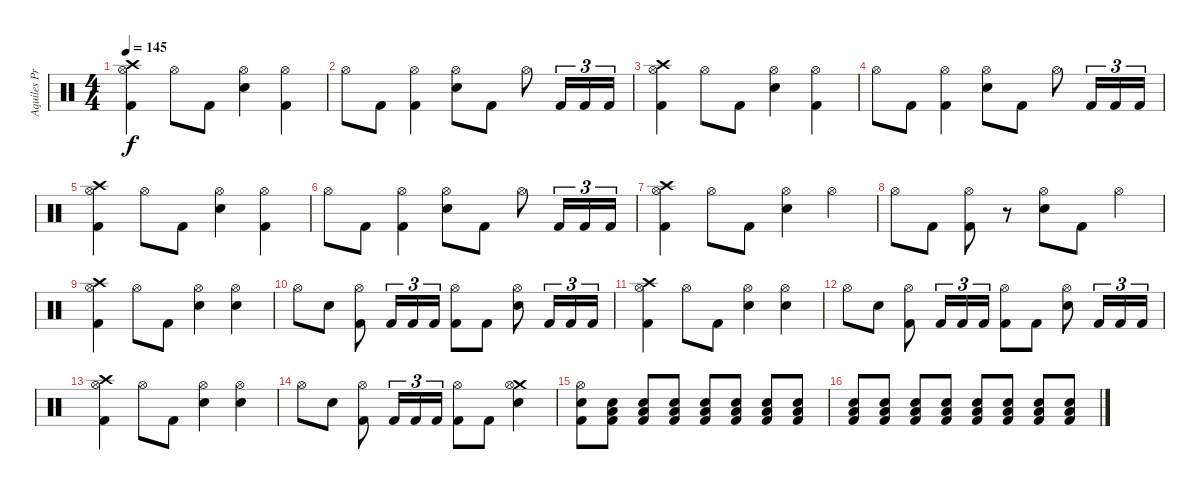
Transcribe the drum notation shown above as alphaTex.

\track ("Aquiles Priester" "Aquiles Pr") {instrument percussion}
\staff {score}
\articulation defaults
\ts (4 4)
\tempo 145
\clef neutral
\ks c
("Crash high (hit)" "Hi-Hat (open)" "Kick (hit) 2").4{dy f} "Hi-Hat (open)".8 "Kick (hit) 2".8 ("Hi-Hat (open)" "Electric Snare (hit)").4 ("Hi-Hat (open)" "Kick (hit) 2").4 |
"Hi-Hat (open)".8 "Kick (hit) 2".8 ("Hi-Hat (open)" "Kick (hit) 2").4 ("Hi-Hat (open)" "Electric Snare (hit)").8 "Kick (hit) 2".8 "Hi-Hat (open)".8 "Kick (hit) 2".16{tu (3 2)} "Kick (hit) 2".16{tu (3 2)} "Kick (hit) 2".16{tu (3 2)} |
("Crash high (hit)" "Hi-Hat (open)" "Kick (hit) 2").4 "Hi-Hat (open)".8 "Kick (hit) 2".8 ("Hi-Hat (open)" "Electric Snare (hit)").4 ("Hi-Hat (open)" "Kick (hit) 2").4 |
"Hi-Hat (open)".8 "Kick (hit) 2".8 ("Hi-Hat (open)" "Kick (hit) 2").4 ("Hi-Hat (open)" "Electric Snare (hit)").8 "Kick (hit) 2".8 "Hi-Hat (open)".8 "Kick (hit) 2".16{tu (3 2)} "Kick (hit) 2".16{tu (3 2)} "Kick (hit) 2".16{tu (3 2)} |
("Crash high (hit)" "Hi-Hat (open)" "Kick (hit) 2").4 "Hi-Hat (open)".8 "Kick (hit) 2".8 ("Hi-Hat (open)" "Electric Snare (hit)").4 ("Hi-Hat (open)" "Kick (hit) 2").4 |
"Hi-Hat (open)".8 "Kick (hit) 2".8 ("Hi-Hat (open)" "Kick (hit) 2").4 ("Hi-Hat (open)" "Electric Snare (hit)").8 "Kick (hit) 2".8 "Hi-Hat (open)".8 "Kick (hit) 2".16{tu (3 2)} "Kick (hit) 2".16{tu (3 2)} "Kick (hit) 2".16{tu (3 2)} |
("Crash high (hit)" "Hi-Hat (open)" "Kick (hit) 2").4 "Hi-Hat (open)".8 "Kick (hit) 2".8 ("Hi-Hat (open)" "Electric Snare (hit)").4 "Hi-Hat (open)".4 |
"Hi-Hat (open)".8 "Kick (hit) 2".8 ("Hi-Hat (open)" "Kick (hit) 2").8 r.8 ("Hi-Hat (open)" "Electric Snare (hit)").8 "Kick (hit) 2".8 "Hi-Hat (open)".4 |
("Crash high (hit)" "Hi-Hat (open)" "Kick (hit) 2").4 "Hi-Hat (open)".8 "Kick (hit) 2".8 ("Hi-Hat (open)" "Electric Snare (hit)").4 ("Hi-Hat (open)" "Electric Snare (hit)").4 |
"Hi-Hat (open)".8 "Electric Snare (hit)".8 ("Hi-Hat (open)" "Kick (hit) 2").8 "Kick (hit) 2".16{tu (3 2)} "Kick (hit) 2".16{tu (3 2)} "Kick (hit) 2".16{tu (3 2)} ("Hi-Hat (open)" "Kick (hit) 2").8 "Kick (hit) 2".8 ("Hi-Hat (open)" "Electric Snare (hit)").8 "Kick (hit) 2".16{tu (3 2)} "Kick (hit) 2".16{tu (3 2)} "Kick (hit) 2".16{tu (3 2)} |
("Crash high (hit)" "Hi-Hat (open)" "Kick (hit) 2").4 "Hi-Hat (open)".8 "Kick (hit) 2".8 ("Hi-Hat (open)" "Electric Snare (hit)").4 ("Hi-Hat (open)" "Electric Snare (hit)").4 |
"Hi-Hat (open)".8 "Electric Snare (hit)".8 ("Hi-Hat (open)" "Kick (hit) 2").8 "Kick (hit) 2".16{tu (3 2)} "Kick (hit) 2".16{tu (3 2)} "Kick (hit) 2".16{tu (3 2)} ("Hi-Hat (open)" "Kick (hit) 2").8 "Kick (hit) 2".8 ("Hi-Hat (open)" "Electric Snare (hit)").8 "Kick (hit) 2".16{tu (3 2)} "Kick (hit) 2".16{tu (3 2)} "Kick (hit) 2".16{tu (3 2)} |
("Crash high (hit)" "Hi-Hat (open)" "Kick (hit) 2").4 "Hi-Hat (open)".8 "Kick (hit) 2".8 ("Hi-Hat (open)" "Electric Snare (hit)").4 ("Hi-Hat (open)" "Electric Snare (hit)").4 |
"Hi-Hat (open)".8 "Electric Snare (hit)".8 ("Hi-Hat (open)" "Kick (hit) 2").8 "Kick (hit) 2".16{tu (3 2)} "Kick (hit) 2".16{tu (3 2)} "Kick (hit) 2".16{tu (3 2)} ("Hi-Hat (open)" "Kick (hit) 2").8 "Kick (hit) 2".8 ("Crash medium (hit)" "Hi-Hat (open)" "Electric Snare (hit)").4 |
("Electric Snare (hit)" "Hi-Hat (open)" "Kick (hit) 2").8{volume 12} ("Electric Snare (hit)" "Low Tom (hit)" "Kick (hit) 2").8{volume 16} ("Electric Snare (hit)" "Low Tom (hit)" "Kick (hit) 2").8 ("Electric Snare (hit)" "Low Tom (hit)" "Kick (hit) 2").8 ("Electric Snare (hit)" "Low Tom (hit)" "Kick (hit) 2").8 ("Electric Snare (hit)" "Low Tom (hit)" "Kick (hit) 2").8 ("Electric Snare (hit)" "Low Tom (hit)" "Kick (hit) 2").8 ("Electric Snare (hit)" "Low Tom (hit)" "Kick (hit) 2").8 |
("Electric Snare (hit)" "Low Tom (hit)" "Kick (hit) 2").8 ("Electric Snare (hit)" "Low Tom (hit)" "Kick (hit) 2").8 ("Electric Snare (hit)" "Low Tom (hit)" "Kick (hit) 2").8 ("Electric Snare (hit)" "Low Tom (hit)" "Kick (hit) 2").8 ("Electric Snare (hit)" "Low Tom (hit)" "Kick (hit) 2").8 ("Electric Snare (hit)" "Low Tom (hit)" "Kick (hit) 2").8 ("Electric Snare (hit)" "Low Tom (hit)" "Kick (hit) 2").8 ("Electric Snare (hit)" "Low Tom (hit)" "Kick (hit) 2").8
